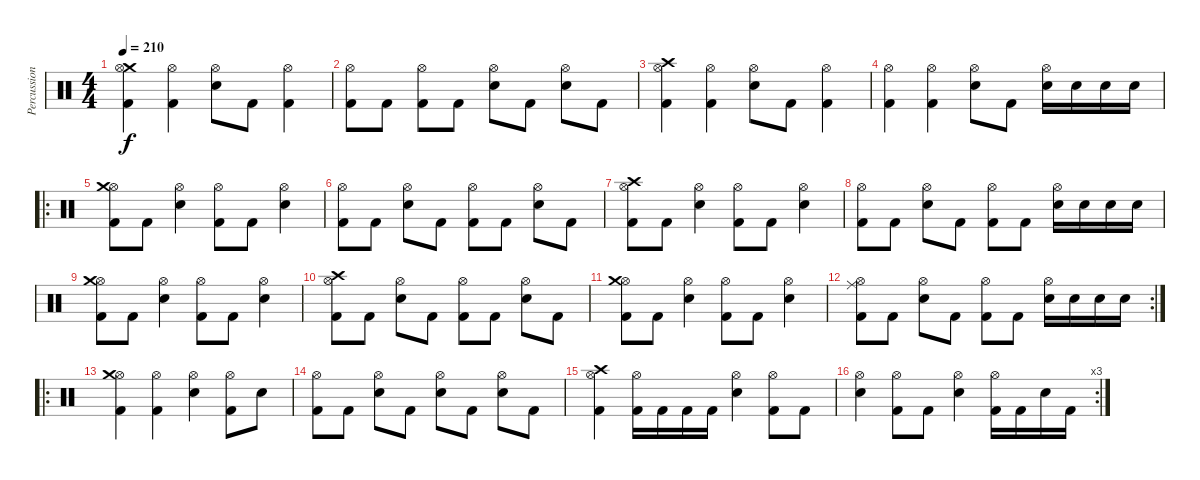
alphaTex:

\track ("Percussion" "Percussion") {instrument percussion}
\staff {score}
\articulation defaults
\ts (4 4)
\tempo 210
\clef neutral
\ks c
("Kick (hit) 2" "Crash medium (hit)" "Hi-Hat (open)").4{dy f} ("Kick (hit) 2" "Hi-Hat (open)").4 ("Snare (hit) 2" "Hi-Hat (open)").8 "Kick (hit) 2".8 ("Kick (hit) 2" "Hi-Hat (open)").4 |
("Kick (hit) 2" "Hi-Hat (open)").8 "Kick (hit) 2".8 ("Kick (hit) 2" "Hi-Hat (open)").8 "Kick (hit) 2".8 ("Snare (hit) 2" "Hi-Hat (open)").8 "Kick (hit) 2".8 ("Snare (hit) 2" "Hi-Hat (open)").8 "Kick (hit) 2".8 |
("Kick (hit) 2" "Crash high (hit)" "Hi-Hat (open)").4 ("Kick (hit) 2" "Hi-Hat (open)").4 ("Snare (hit) 2" "Hi-Hat (open)").8 "Kick (hit) 2".8 ("Kick (hit) 2" "Hi-Hat (open)").4 |
("Kick (hit) 2" "Hi-Hat (open)").4 ("Kick (hit) 2" "Hi-Hat (open)").4 ("Snare (hit) 2" "Hi-Hat (open)").8 "Kick (hit) 2".8 ("Snare (hit) 2" "Hi-Hat (open)").16 "Snare (hit) 2".16 "Snare (hit) 2".16 "Snare (hit) 2".16 |
\ro
("Hi-Hat (open)" "Kick (hit) 2" "Crash medium (hit)").8 "Kick (hit) 2".8 ("Hi-Hat (open)" "Snare (hit) 2").4 ("Hi-Hat (open)" "Kick (hit) 2").8 "Kick (hit) 2".8 ("Hi-Hat (open)" "Snare (hit) 2").4 |
("Hi-Hat (open)" "Kick (hit) 2").8 "Kick (hit) 2".8 ("Hi-Hat (open)" "Snare (hit) 2").8 "Kick (hit) 2".8 ("Hi-Hat (open)" "Kick (hit) 2").8 "Kick (hit) 2".8 ("Hi-Hat (open)" "Snare (hit) 2").8 "Kick (hit) 2".8 |
("Hi-Hat (open)" "Kick (hit) 2" "Crash high (hit)").8 "Kick (hit) 2".8 ("Hi-Hat (open)" "Snare (hit) 2").4 ("Hi-Hat (open)" "Kick (hit) 2").8 "Kick (hit) 2".8 ("Hi-Hat (open)" "Snare (hit) 2").4 |
("Hi-Hat (open)" "Kick (hit) 2").8 "Kick (hit) 2".8 ("Hi-Hat (open)" "Snare (hit) 2").8 "Kick (hit) 2".8 ("Hi-Hat (open)" "Kick (hit) 2").8 "Kick (hit) 2".8 ("Hi-Hat (open)" "Snare (hit) 2").16 "Snare (hit) 2".16 "Snare (hit) 2".16 "Snare (hit) 2".16 |
("Hi-Hat (open)" "Kick (hit) 2" "Crash medium (hit)").8 "Kick (hit) 2".8 ("Hi-Hat (open)" "Snare (hit) 2").4 ("Hi-Hat (open)" "Kick (hit) 2").8 "Kick (hit) 2".8 ("Hi-Hat (open)" "Snare (hit) 2").4 |
("Hi-Hat (open)" "Kick (hit) 2" "Crash high (hit)").8 "Kick (hit) 2".8 ("Hi-Hat (open)" "Snare (hit) 2").8 "Kick (hit) 2".8 ("Hi-Hat (open)" "Kick (hit) 2").8 "Kick (hit) 2".8 ("Hi-Hat (open)" "Snare (hit) 2").8 "Kick (hit) 2".8 |
("Hi-Hat (open)" "Kick (hit) 2" "Crash medium (hit)").8 "Kick (hit) 2".8 ("Hi-Hat (open)" "Snare (hit) 2").4 ("Hi-Hat (open)" "Kick (hit) 2").8 "Kick (hit) 2".8 ("Hi-Hat (open)" "Snare (hit) 2").4 |
\rc 2
("Hi-Hat (open)" "Kick (hit) 2" "Ride (middle)").8 "Kick (hit) 2".8 ("Hi-Hat (open)" "Snare (hit) 2").8 "Kick (hit) 2".8 ("Hi-Hat (open)" "Kick (hit) 2").8 "Kick (hit) 2".8 ("Hi-Hat (open)" "Snare (hit) 2").16 "Snare (hit) 2".16 "Snare (hit) 2".16 "Snare (hit) 2".16 |
\ro
("Hi-Hat (open)" "Kick (hit) 2" "Crash medium (hit)").4 ("Hi-Hat (open)" "Kick (hit) 2").4 ("Hi-Hat (open)" "Snare (hit) 2").4 ("Hi-Hat (open)" "Kick (hit) 2").8 "Snare (hit) 2".8 |
("Hi-Hat (open)" "Kick (hit) 2").8 "Kick (hit) 2".8 ("Hi-Hat (open)" "Snare (hit) 2").8 "Kick (hit) 2".8 ("Hi-Hat (open)" "Snare (hit) 2").8 "Kick (hit) 2".8 ("Hi-Hat (open)" "Snare (hit) 2").8 "Kick (hit) 2".8 |
("Hi-Hat (open)" "Kick (hit) 2" "Crash high (hit)").4 ("Hi-Hat (open)" "Kick (hit) 2").16 "Kick (hit) 2".16 "Kick (hit) 2".16 "Kick (hit) 2".16 ("Hi-Hat (open)" "Snare (hit) 2").4 ("Hi-Hat (open)" "Kick (hit) 2").8 "Kick (hit) 2".8 |
\rc 3
("Hi-Hat (open)" "Snare (hit) 2").4 ("Hi-Hat (open)" "Kick (hit) 2").8 "Kick (hit) 2".8 ("Hi-Hat (open)" "Snare (hit) 2").4 ("Hi-Hat (open)" "Kick (hit) 2").16 "Kick (hit) 2".16 "Snare (hit) 2".16 "Kick (hit) 2".16
